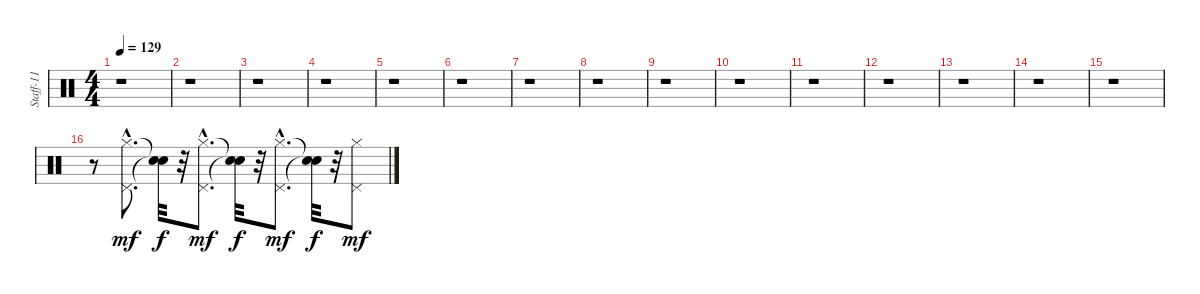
\track ("Staff-11" "Staff-11") {instrument percussion}
\staff {score}
\articulation defaults
\ts (4 4)
\tempo 129
\clef neutral
\ks c
r.1{dy mf} |
r.1 |
r.1 |
r.1 |
r.1 |
r.1 |
r.1 |
r.1 |
r.1 |
r.1 |
r.1 |
r.1 |
r.1 |
r.1 |
r.1 |
r.8 ("Hi-Hat (closed)"{hac} "Pedal Hi-Hat (hit)"{hac}).8{d} ("Snare (hit)"{t} "Snare (hit)"{t}).32{dy f} r.32 ("Hi-Hat (closed)"{hac} "Pedal Hi-Hat (hit)"{hac}).8{d dy mf} ("Snare (hit)"{t} "Snare (hit)"{t}).32{dy f} r.32 ("Hi-Hat (closed)"{hac} "Pedal Hi-Hat (hit)"{hac}).8{d dy mf} ("Snare (hit)"{t} "Snare (hit)"{t}).32{dy f} r.32 ("Hi-Hat (closed)" "Pedal Hi-Hat (hit)").8{dy mf}
